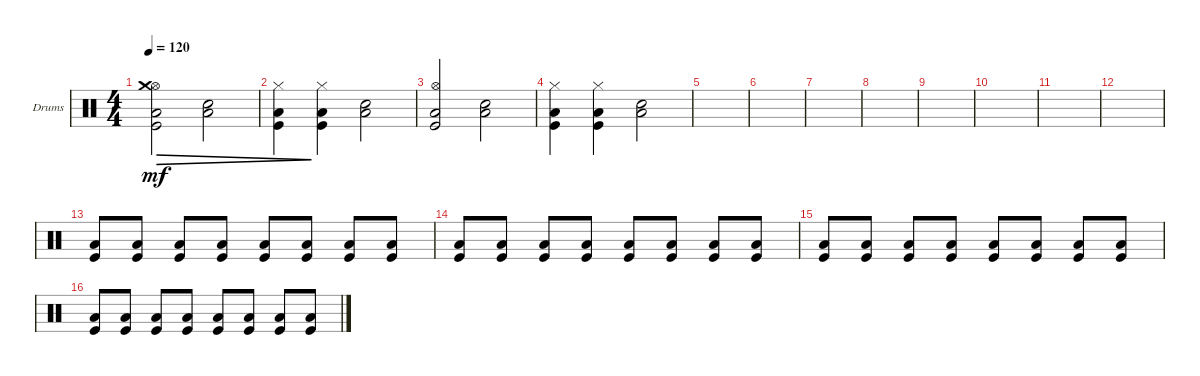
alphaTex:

\bracketExtendMode groupsimilarinstruments
\firstSystemTrackNameOrientation horizontal
\otherSystemsTrackNameOrientation horizontal
\track ("Drumkit" "Drums") {instrument percussion}
\staff {score}
\articulation defaults
\ts (4 4)
\tempo 120
\clef neutral
\ks c
("Kick (hit)" "Hi-Hat (open)" "Low Tom (hit)" "Crash medium (hit)").2{dec dy mf} ("Snare (hit) 2" "Low Tom (hit)").2{dec} |
("Kick (hit)" "Low Tom (hit)" "Hi-Hat (closed)").4{dec} ("Kick (hit)" "Low Tom (hit)" "Hi-Hat (closed)").4 ("Snare (hit) 2" "Low Tom (hit)").2 |
("Kick (hit)" "Hi-Hat (open)" "Low Tom (hit)").2 ("Snare (hit) 2" "Low Tom (hit)").2 |
("Kick (hit)" "Low Tom (hit)" "Hi-Hat (closed)").4 ("Kick (hit)" "Low Tom (hit)" "Hi-Hat (closed)").4 ("Snare (hit) 2" "Low Tom (hit)").2 |
|
|
|
|
|
|
|
|
("Kick (hit)" "Low Tom (hit)").8 ("Kick (hit)" "Low Tom (hit)").8 ("Kick (hit)" "Low Tom (hit)").8 ("Kick (hit)" "Low Tom (hit)").8 ("Kick (hit)" "Low Tom (hit)").8 ("Kick (hit)" "Low Tom (hit)").8 ("Kick (hit)" "Low Tom (hit)").8 ("Kick (hit)" "Low Tom (hit)").8 |
("Kick (hit)" "Low Tom (hit)").8 ("Kick (hit)" "Low Tom (hit)").8 ("Kick (hit)" "Low Tom (hit)").8 ("Kick (hit)" "Low Tom (hit)").8 ("Kick (hit)" "Low Tom (hit)").8 ("Kick (hit)" "Low Tom (hit)").8 ("Kick (hit)" "Low Tom (hit)").8 ("Kick (hit)" "Low Tom (hit)").8 |
("Kick (hit)" "Low Tom (hit)").8 ("Kick (hit)" "Low Tom (hit)").8 ("Kick (hit)" "Low Tom (hit)").8 ("Kick (hit)" "Low Tom (hit)").8 ("Kick (hit)" "Low Tom (hit)").8 ("Kick (hit)" "Low Tom (hit)").8 ("Kick (hit)" "Low Tom (hit)").8 ("Kick (hit)" "Low Tom (hit)").8 |
("Kick (hit)" "Low Tom (hit)").8 ("Kick (hit)" "Low Tom (hit)").8 ("Kick (hit)" "Low Tom (hit)").8 ("Kick (hit)" "Low Tom (hit)").8 ("Kick (hit)" "Low Tom (hit)").8 ("Kick (hit)" "Low Tom (hit)").8 ("Kick (hit)" "Low Tom (hit)").8 ("Kick (hit)" "Low Tom (hit)").8
